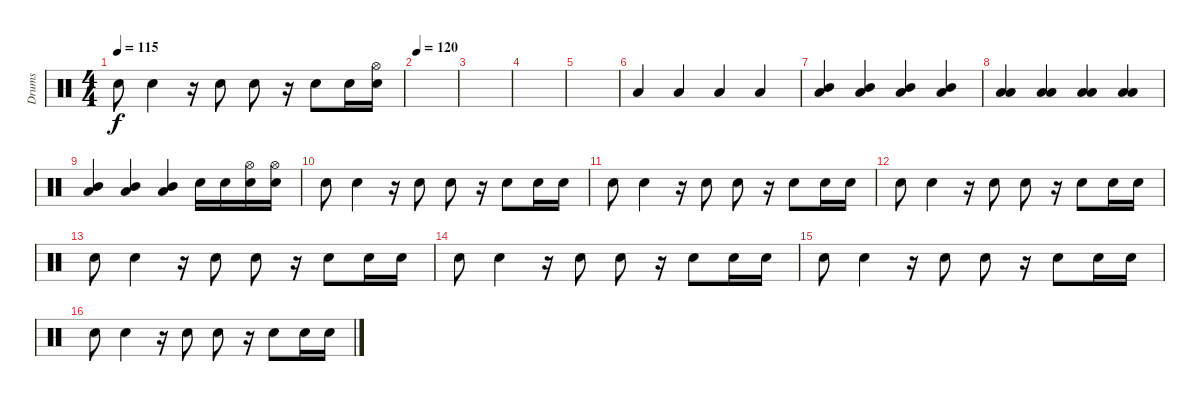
\track ("Drums" "Drums") {instrument percussion}
\staff {score}
\articulation defaults
\ts (4 4)
\tempo 115
\clef neutral
\ks c "Snare (hit) 2".8{dy f} "Snare (hit) 2".4
r.16 "Snare (hit) 2".8 "Snare (hit) 2".8 r.16 "Snare (hit) 2".8 "Snare (hit) 2".16 ("Snare (hit) 2" "Hi-Hat (open)").16 |
\tempo 120
|
|
|
|
"Low Tom (hit)".4 "Low Tom (hit)".4 "Low Tom (hit)".4 "Low Tom (hit)".4 |
("Low Tom (hit)" "Mid Tom (hit)").4 ("Low Tom (hit)" "Mid Tom (hit)").4 ("Low Tom (hit)" "Mid Tom (hit)").4 ("Low Tom (hit)" "Mid Tom (hit)").4 |
("Low Tom (hit)" "Low Tom (hit)").4 ("Low Tom (hit)" "Low Tom (hit)").4 ("Low Tom (hit)" "Low Tom (hit)").4 ("Low Tom (hit)" "Low Tom (hit)").4 |
("Low Tom (hit)" "Mid Tom (hit)").4 ("Low Tom (hit)" "Mid Tom (hit)").4 ("Low Tom (hit)" "Mid Tom (hit)").4 "Snare (hit) 2".16 "Snare (hit) 2".16 ("Snare (hit) 2" "Hi-Hat (open)").16 ("Snare (hit) 2" "Hi-Hat (open)").16 |
"Snare (hit) 2".8 "Snare (hit) 2".4 r.16 "Snare (hit) 2".8 "Snare (hit) 2".8 r.16 "Snare (hit) 2".8 "Snare (hit) 2".16 "Snare (hit) 2".16 |
"Snare (hit) 2".8 "Snare (hit) 2".4 r.16 "Snare (hit) 2".8 "Snare (hit) 2".8 r.16 "Snare (hit) 2".8 "Snare (hit) 2".16 "Snare (hit) 2".16 |
"Snare (hit) 2".8 "Snare (hit) 2".4 r.16 "Snare (hit) 2".8 "Snare (hit) 2".8 r.16 "Snare (hit) 2".8 "Snare (hit) 2".16 "Snare (hit) 2".16 |
"Snare (hit) 2".8 "Snare (hit) 2".4 r.16 "Snare (hit) 2".8 "Snare (hit) 2".8 r.16 "Snare (hit) 2".8 "Snare (hit) 2".16 "Snare (hit) 2".16 |
"Snare (hit) 2".8 "Snare (hit) 2".4 r.16 "Snare (hit) 2".8 "Snare (hit) 2".8 r.16 "Snare (hit) 2".8 "Snare (hit) 2".16 "Snare (hit) 2".16 |
"Snare (hit) 2".8 "Snare (hit) 2".4 r.16 "Snare (hit) 2".8 "Snare (hit) 2".8 r.16 "Snare (hit) 2".8 "Snare (hit) 2".16 "Snare (hit) 2".16 |
"Snare (hit) 2".8 "Snare (hit) 2".4 r.16 "Snare (hit) 2".8 "Snare (hit) 2".8 r.16 "Snare (hit) 2".8 "Snare (hit) 2".16 "Snare (hit) 2".16
